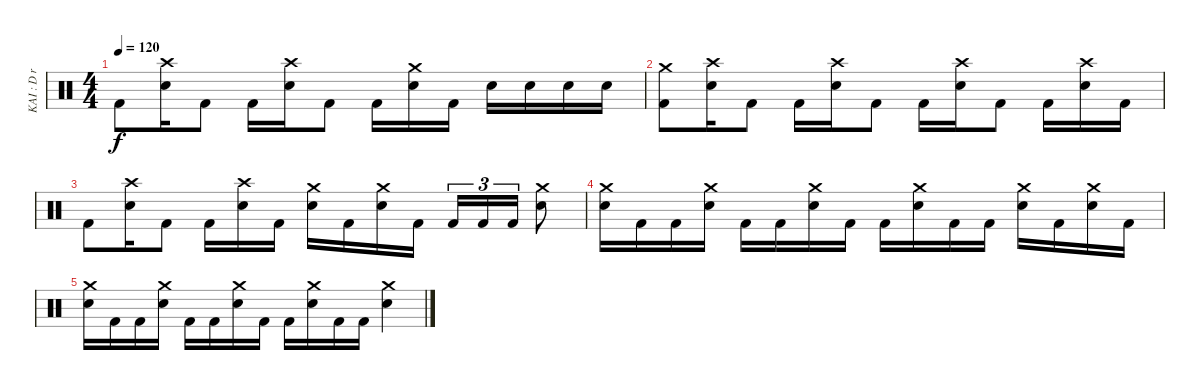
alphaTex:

\track ("KAI : D r u m S" "KAI : D r ") {instrument percussion}
\staff {score}
\articulation defaults
\ts (4 4)
\tempo 120
\clef neutral
\ks c "Kick (hit) 2".8{dy f}
("Crash high (hit)" "Electric Snare (hit)").16 "Kick (hit) 2".8 "Kick (hit) 2".16 ("Crash high (hit)" "Electric Snare (hit)").16 "Kick (hit) 2".8 "Kick (hit) 2".16 ("Crash medium (hit)" "Electric Snare (hit)").16 "Kick (hit) 2".16 "Electric Snare (hit)".16 "Electric Snare (hit)".16 "Electric Snare (hit)".16 "Electric Snare (hit)".16 |
("Crash medium (hit)" "Kick (hit) 2").8 ("Crash high (hit)" "Electric Snare (hit)").16 "Kick (hit) 2".8 "Kick (hit) 2".16 ("Crash high (hit)" "Electric Snare (hit)").16 "Kick (hit) 2".8 "Kick (hit) 2".16 ("Crash high (hit)" "Electric Snare (hit)").16 "Kick (hit) 2".8 "Kick (hit) 2".16 ("Crash high (hit)" "Electric Snare (hit)").16 "Kick (hit) 2".16 |
"Kick (hit) 2".8 ("Crash high (hit)" "Electric Snare (hit)").16 "Kick (hit) 2".8 "Kick (hit) 2".16 ("Crash high (hit)" "Electric Snare (hit)").16 "Kick (hit) 2".16 ("Crash medium (hit)" "Electric Snare (hit)").16 "Kick (hit) 2".16 ("Crash medium (hit)" "Electric Snare (hit)").16 "Kick (hit) 2".16 "Kick (hit) 2".16{tu (3 2)} "Kick (hit) 2".16{tu (3 2)} "Kick (hit) 2".16{tu (3 2)} ("Crash medium (hit)" "Electric Snare (hit)").8 |
("Crash medium (hit)" "Electric Snare (hit)").16 "Kick (hit) 2".16 "Kick (hit) 2".16 ("Crash medium (hit)" "Electric Snare (hit)").16 "Kick (hit) 2".16 "Kick (hit) 2".16 ("Crash medium (hit)" "Electric Snare (hit)").16 "Kick (hit) 2".16 "Kick (hit) 2".16 ("Crash medium (hit)" "Electric Snare (hit)").16 "Kick (hit) 2".16 "Kick (hit) 2".16 ("Crash medium (hit)" "Electric Snare (hit)").16 "Kick (hit) 2".16 ("Crash medium (hit)" "Electric Snare (hit)").16 "Kick (hit) 2".16 |
("Crash medium (hit)" "Electric Snare (hit)").16 "Kick (hit) 2".16 "Kick (hit) 2".16 ("Crash medium (hit)" "Electric Snare (hit)").16 "Kick (hit) 2".16 "Kick (hit) 2".16 ("Crash medium (hit)" "Electric Snare (hit)").16 "Kick (hit) 2".16 "Kick (hit) 2".16 ("Crash medium (hit)" "Electric Snare (hit)").16 "Kick (hit) 2".16 "Kick (hit) 2".16 ("Crash medium (hit)" "Electric Snare (hit)").4
